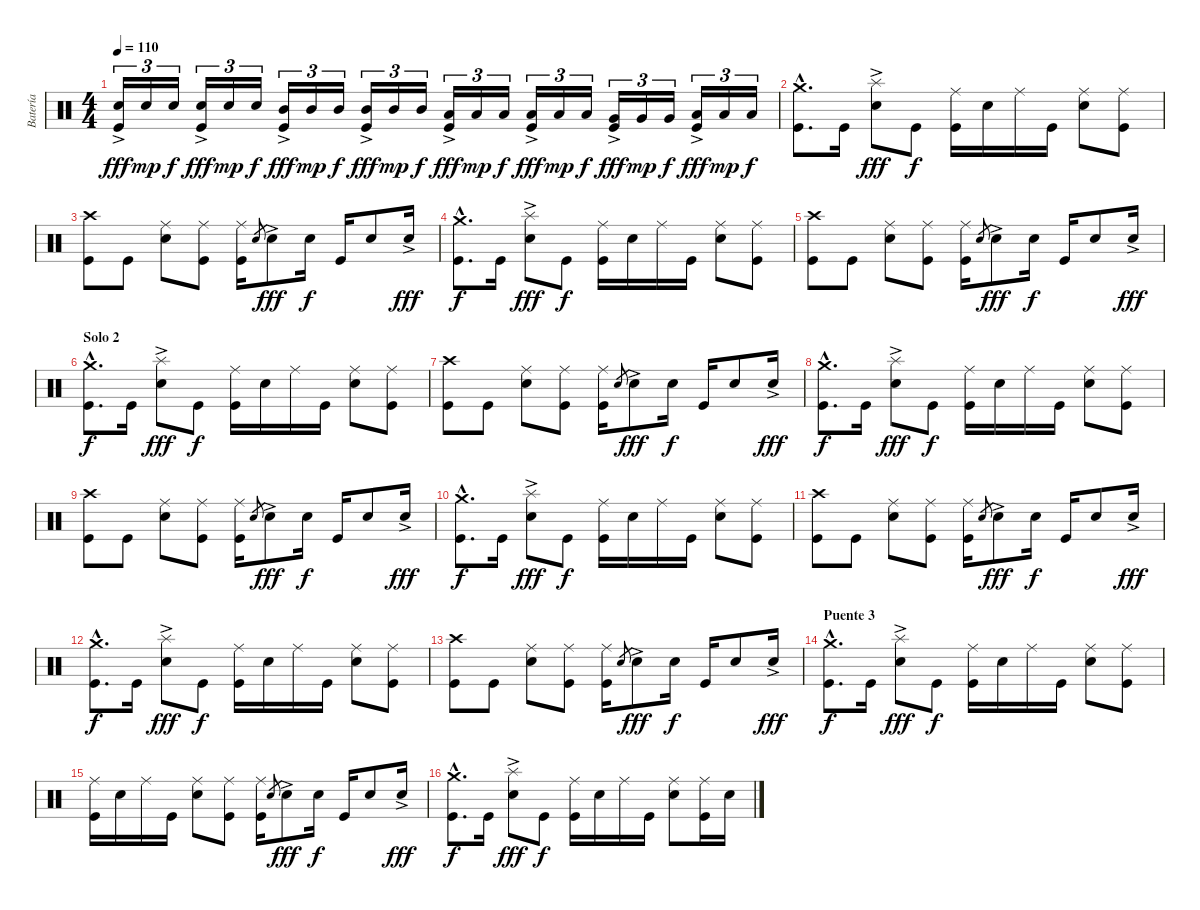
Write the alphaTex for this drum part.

\track ("Batería" "Batería") {instrument percussion}
\staff {score}
\articulation defaults
\ts (4 4)
\tempo 110
\clef neutral
\ks c
("Kick (hit)" "Electric Snare (hit)"{ac}).16{tu (3 2) dy fff} "Electric Snare (hit)".16{tu (3 2) dy mp} "Electric Snare (hit)".16{tu (3 2) dy f} ("Kick (hit)" "Electric Snare (hit)"{ac}).16{tu (3 2) dy fff} "Electric Snare (hit)".16{tu (3 2) dy mp} "Electric Snare (hit)".16{tu (3 2) dy f} ("Kick (hit)" "Mid Tom (hit)"{ac}).16{tu (3 2) dy fff} "Mid Tom (hit)".16{tu (3 2) dy mp} "Mid Tom (hit)".16{tu (3 2) dy f} ("Kick (hit)" "Mid Tom (hit)"{ac}).16{tu (3 2) dy fff} "Mid Tom (hit)".16{tu (3 2) dy mp} "Mid Tom (hit)".16{tu (3 2) dy f} ("Kick (hit)" "Low Tom (hit)"{ac}).16{tu (3 2) dy fff} "Low Tom (hit)".16{tu (3 2) dy mp} "Low Tom (hit)".16{tu (3 2) dy f} ("Kick (hit)" "Low Tom (hit)"{ac}).16{tu (3 2) dy fff} "Low Tom (hit)".16{tu (3 2) dy mp} "Low Tom (hit)".16{tu (3 2) dy f} ("Kick (hit)" "Very Low Tom (hit)"{ac}).16{tu (3 2) dy fff} "Very Low Tom (hit)".16{tu (3 2) dy mp} "Very Low Tom (hit)".16{tu (3 2) dy f} ("Kick (hit)" "Low Floor Tom (hit)"{ac}).16{tu (3 2) dy fff} "Low Floor Tom (hit)".16{tu (3 2) dy mp} "Low Floor Tom (hit)".16{tu (3 2) dy f} |
("Kick (hit)"{hac} "Crash medium (hit)"{hac}).8{d} "Kick (hit)".16 ("Electric Snare (hit)" "Splash (hit)"{ac}).8{dy fff} "Kick (hit)".8{dy f} ("Kick (hit)" "Ride (middle)").16 "Electric Snare (hit)".16 "Ride (middle)".16 "Kick (hit)".16 ("Electric Snare (hit)" "Ride (middle)").8 ("Kick (hit)" "Ride (middle)").8 |
("Kick (hit)" "Crash high (hit)").8 "Kick (hit)".8 ("Electric Snare (hit)" "Ride (middle)").8 ("Kick (hit)" "Ride (middle)").8 ("Kick (hit)" "Ride (middle)").16 "Electric Snare (hit)".8{gr} "Electric Snare (hit)"{ac}.8{dy fff} "Electric Snare (hit)".16{dy f} "Kick (hit)".16 "Electric Snare (hit)".8 "Electric Snare (hit)"{ac}.16{dy fff} |
("Kick (hit)"{hac} "Crash medium (hit)"{hac}).8{d dy f} "Kick (hit)".16 ("Electric Snare (hit)" "Splash (hit)"{ac}).8{dy fff} "Kick (hit)".8{dy f} ("Kick (hit)" "Ride (middle)").16 "Electric Snare (hit)".16 "Ride (middle)".16 "Kick (hit)".16 ("Electric Snare (hit)" "Ride (middle)").8 ("Kick (hit)" "Ride (middle)").8 |
("Kick (hit)" "Crash high (hit)").8 "Kick (hit)".8 ("Electric Snare (hit)" "Ride (middle)").8 ("Kick (hit)" "Ride (middle)").8 ("Kick (hit)" "Ride (middle)").16 "Electric Snare (hit)".8{gr} "Electric Snare (hit)"{ac}.8{dy fff} "Electric Snare (hit)".16{dy f} "Kick (hit)".16 "Electric Snare (hit)".8 "Electric Snare (hit)"{ac}.16{dy fff} |
\section ("" "Solo 2")
("Kick (hit)"{hac} "Crash medium (hit)"{hac}).8{d dy f} "Kick (hit)".16 ("Electric Snare (hit)" "Splash (hit)"{ac}).8{dy fff} "Kick (hit)".8{dy f} ("Kick (hit)" "Ride (middle)").16 "Electric Snare (hit)".16 "Ride (middle)".16 "Kick (hit)".16 ("Electric Snare (hit)" "Ride (middle)").8 ("Kick (hit)" "Ride (middle)").8 |
("Kick (hit)" "Crash high (hit)").8 "Kick (hit)".8 ("Electric Snare (hit)" "Ride (middle)").8 ("Kick (hit)" "Ride (middle)").8 ("Kick (hit)" "Ride (middle)").16 "Electric Snare (hit)".8{gr} "Electric Snare (hit)"{ac}.8{dy fff} "Electric Snare (hit)".16{dy f} "Kick (hit)".16 "Electric Snare (hit)".8 "Electric Snare (hit)"{ac}.16{dy fff} |
("Kick (hit)"{hac} "Crash medium (hit)"{hac}).8{d dy f} "Kick (hit)".16 ("Electric Snare (hit)" "Splash (hit)"{ac}).8{dy fff} "Kick (hit)".8{dy f} ("Kick (hit)" "Ride (middle)").16 "Electric Snare (hit)".16 "Ride (middle)".16 "Kick (hit)".16 ("Electric Snare (hit)" "Ride (middle)").8 ("Kick (hit)" "Ride (middle)").8 |
("Kick (hit)" "Crash high (hit)").8 "Kick (hit)".8 ("Electric Snare (hit)" "Ride (middle)").8 ("Kick (hit)" "Ride (middle)").8 ("Kick (hit)" "Ride (middle)").16 "Electric Snare (hit)".8{gr} "Electric Snare (hit)"{ac}.8{dy fff} "Electric Snare (hit)".16{dy f} "Kick (hit)".16 "Electric Snare (hit)".8 "Electric Snare (hit)"{ac}.16{dy fff} |
("Kick (hit)"{hac} "Crash medium (hit)"{hac}).8{d dy f} "Kick (hit)".16 ("Electric Snare (hit)" "Splash (hit)"{ac}).8{dy fff} "Kick (hit)".8{dy f} ("Kick (hit)" "Ride (middle)").16 "Electric Snare (hit)".16 "Ride (middle)".16 "Kick (hit)".16 ("Electric Snare (hit)" "Ride (middle)").8 ("Kick (hit)" "Ride (middle)").8 |
("Kick (hit)" "Crash high (hit)").8 "Kick (hit)".8 ("Electric Snare (hit)" "Ride (middle)").8 ("Kick (hit)" "Ride (middle)").8 ("Kick (hit)" "Ride (middle)").16 "Electric Snare (hit)".8{gr} "Electric Snare (hit)"{ac}.8{dy fff} "Electric Snare (hit)".16{dy f} "Kick (hit)".16 "Electric Snare (hit)".8 "Electric Snare (hit)"{ac}.16{dy fff} |
("Kick (hit)"{hac} "Crash medium (hit)"{hac}).8{d dy f} "Kick (hit)".16 ("Electric Snare (hit)" "Splash (hit)"{ac}).8{dy fff} "Kick (hit)".8{dy f} ("Kick (hit)" "Ride (middle)").16 "Electric Snare (hit)".16 "Ride (middle)".16 "Kick (hit)".16 ("Electric Snare (hit)" "Ride (middle)").8 ("Kick (hit)" "Ride (middle)").8 |
("Kick (hit)" "Crash high (hit)").8 "Kick (hit)".8 ("Electric Snare (hit)" "Ride (middle)").8 ("Kick (hit)" "Ride (middle)").8 ("Kick (hit)" "Ride (middle)").16 "Electric Snare (hit)".8{gr} "Electric Snare (hit)"{ac}.8{dy fff} "Electric Snare (hit)".16{dy f} "Kick (hit)".16 "Electric Snare (hit)".8 "Electric Snare (hit)"{ac}.16{dy fff} |
\section ("" "Puente 3")
("Kick (hit)"{hac} "Crash medium (hit)"{hac}).8{d dy f} "Kick (hit)".16 ("Electric Snare (hit)" "Splash (hit)"{ac}).8{dy fff} "Kick (hit)".8{dy f} ("Kick (hit)" "Ride (middle)").16 "Electric Snare (hit)".16 "Ride (middle)".16 "Kick (hit)".16 ("Electric Snare (hit)" "Ride (middle)").8 ("Kick (hit)" "Ride (middle)").8 |
("Kick (hit)" "Ride (middle)").16 "Electric Snare (hit)".16 "Ride (middle)".16 "Kick (hit)".16 ("Electric Snare (hit)" "Ride (middle)").8 ("Kick (hit)" "Ride (middle)").8 ("Kick (hit)" "Ride (middle)").16 "Electric Snare (hit)".8{gr} "Electric Snare (hit)"{ac}.8{dy fff} "Electric Snare (hit)".16{dy f} "Kick (hit)".16 "Electric Snare (hit)".8 "Electric Snare (hit)"{ac}.16{dy fff} |
("Kick (hit)"{hac} "Crash medium (hit)"{hac}).8{d dy f} "Kick (hit)".16 ("Electric Snare (hit)" "Splash (hit)"{ac}).8{dy fff} "Kick (hit)".8{dy f} ("Kick (hit)" "Ride (middle)").16 "Electric Snare (hit)".16 "Ride (middle)".16 "Kick (hit)".16 ("Electric Snare (hit)" "Ride (middle)").8 ("Kick (hit)" "Ride (middle)").16 "Electric Snare (hit)".16
